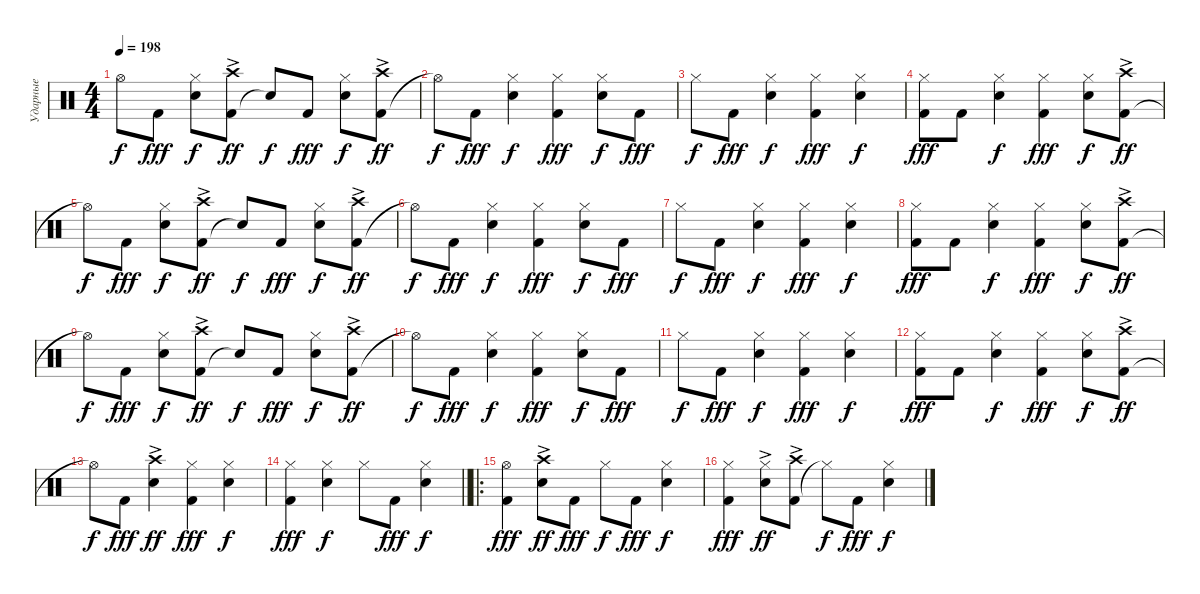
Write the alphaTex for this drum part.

\track ("Ударные" "Ударные") {instrument percussion}
\staff {score}
\articulation defaults
\ts (4 4)
\tempo 198
\clef neutral
\ks c "Hi-Hat (open)"{t}.8{dy f} "Kick (hit) 2".8{dy fff}
("Snare (hit) 2" "Hi-Hat (closed)").8{dy f} ("Kick (hit) 2" "Crash high (hit)"{ac}).8{dy ff} "Snare (hit)"{t}.8{dy f} "Kick (hit) 2".8{dy fff} ("Snare (hit) 2" "Hi-Hat (closed)").8{dy f} ("Kick (hit) 2" "Crash high (hit)"{ac}).8{dy ff} |
"Hi-Hat (open)"{t}.8{dy f} "Kick (hit) 2".8{dy fff} ("Snare (hit) 2" "Hi-Hat (closed)").4{dy f} ("Kick (hit) 2" "Hi-Hat (closed)").4{dy fff} ("Snare (hit) 2" "Hi-Hat (closed)").8{dy f} "Kick (hit) 2".8{dy fff} |
"Hi-Hat (closed)".8{dy f} "Kick (hit) 2".8{dy fff} ("Snare (hit) 2" "Hi-Hat (closed)").4{dy f} ("Kick (hit) 2" "Hi-Hat (closed)").4{dy fff} ("Snare (hit) 2" "Hi-Hat (closed)").4{dy f} |
("Kick (hit) 2" "Hi-Hat (closed)").8{dy fff} "Kick (hit) 2".8 ("Snare (hit) 2" "Hi-Hat (closed)").4{dy f} ("Kick (hit) 2" "Hi-Hat (closed)").4{dy fff} ("Snare (hit) 2" "Hi-Hat (closed)").8{dy f} ("Kick (hit) 2" "Crash high (hit)"{ac}).8{dy ff} |
"Hi-Hat (open)"{t}.8{dy f} "Kick (hit) 2".8{dy fff} ("Snare (hit) 2" "Hi-Hat (closed)").8{dy f} ("Kick (hit) 2" "Crash high (hit)"{ac}).8{dy ff} "Snare (hit)"{t}.8{dy f} "Kick (hit) 2".8{dy fff} ("Snare (hit) 2" "Hi-Hat (closed)").8{dy f} ("Kick (hit) 2" "Crash high (hit)"{ac}).8{dy ff} |
"Hi-Hat (open)"{t}.8{dy f} "Kick (hit) 2".8{dy fff} ("Snare (hit) 2" "Hi-Hat (closed)").4{dy f} ("Kick (hit) 2" "Hi-Hat (closed)").4{dy fff} ("Snare (hit) 2" "Hi-Hat (closed)").8{dy f} "Kick (hit) 2".8{dy fff} |
"Hi-Hat (closed)".8{dy f} "Kick (hit) 2".8{dy fff} ("Snare (hit) 2" "Hi-Hat (closed)").4{dy f} ("Kick (hit) 2" "Hi-Hat (closed)").4{dy fff} ("Snare (hit) 2" "Hi-Hat (closed)").4{dy f} |
("Kick (hit) 2" "Hi-Hat (closed)").8{dy fff} "Kick (hit) 2".8 ("Snare (hit) 2" "Hi-Hat (closed)").4{dy f} ("Kick (hit) 2" "Hi-Hat (closed)").4{dy fff} ("Snare (hit) 2" "Hi-Hat (closed)").8{dy f} ("Kick (hit) 2" "Crash high (hit)"{ac}).8{dy ff} |
"Hi-Hat (open)"{t}.8{dy f} "Kick (hit) 2".8{dy fff} ("Snare (hit) 2" "Hi-Hat (closed)").8{dy f} ("Kick (hit) 2" "Crash high (hit)"{ac}).8{dy ff} "Snare (hit)"{t}.8{dy f} "Kick (hit) 2".8{dy fff} ("Snare (hit) 2" "Hi-Hat (closed)").8{dy f} ("Kick (hit) 2" "Crash high (hit)"{ac}).8{dy ff} |
"Hi-Hat (open)"{t}.8{dy f} "Kick (hit) 2".8{dy fff} ("Snare (hit) 2" "Hi-Hat (closed)").4{dy f} ("Kick (hit) 2" "Hi-Hat (closed)").4{dy fff} ("Snare (hit) 2" "Hi-Hat (closed)").8{dy f} "Kick (hit) 2".8{dy fff} |
"Hi-Hat (closed)".8{dy f} "Kick (hit) 2".8{dy fff} ("Snare (hit) 2" "Hi-Hat (closed)").4{dy f} ("Kick (hit) 2" "Hi-Hat (closed)").4{dy fff} ("Snare (hit) 2" "Hi-Hat (closed)").4{dy f} |
("Kick (hit) 2" "Hi-Hat (closed)").8{dy fff} "Kick (hit) 2".8 ("Snare (hit) 2" "Hi-Hat (closed)").4{dy f} ("Kick (hit) 2" "Hi-Hat (closed)").4{dy fff} ("Snare (hit) 2" "Hi-Hat (closed)").8{dy f} ("Kick (hit) 2" "Crash high (hit)"{ac}).8{dy ff} |
"Hi-Hat (open)"{t}.8{dy f} "Kick (hit) 2".8{dy fff} ("Snare (hit) 2" "Crash high (hit)"{ac}).4{dy ff} ("Kick (hit) 2" "Hi-Hat (closed)").4{dy fff} ("Snare (hit) 2" "Hi-Hat (closed)").4{dy f} |
\barLineRight lightlight
("Kick (hit) 2" "Hi-Hat (closed)").4{dy fff} ("Snare (hit) 2" "Hi-Hat (closed)").4{dy f} "Hi-Hat (closed)".8 "Kick (hit) 2".8{dy fff} ("Snare (hit) 2" "Hi-Hat (closed)").4{dy f} |
\ro
("Kick (hit) 2" "Hi-Hat (open)").4{dy fff} ("Snare (hit) 2" "Crash high (hit)"{ac}).8{dy ff} "Kick (hit) 2".8{dy fff} "Hi-Hat (closed)".8{dy f} "Kick (hit) 2".8{dy fff} ("Snare (hit) 2" "Hi-Hat (closed)").4{dy f} |
("Kick (hit) 2" "Hi-Hat (closed)").4{dy fff} ("Snare (hit) 2" "Hi-Hat (closed)"{ac}).8{dy ff} ("Kick (hit) 2" "Crash high (hit)"{ac}).8 "Hi-Hat (closed)"{t}.8{dy f} "Kick (hit) 2".8{dy fff} ("Snare (hit) 2" "Hi-Hat (closed)").4{dy f}
